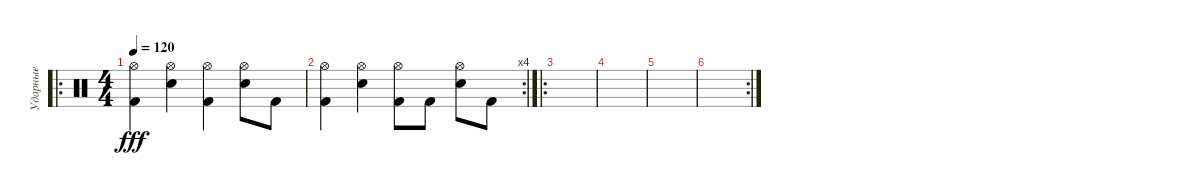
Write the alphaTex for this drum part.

\track ("Ударные" "Ударные") {instrument percussion}
\staff {score}
\articulation defaults
\ro
\ts (4 4)
\tempo 120
\clef neutral
\ks c
("Hi-Hat (open)" "Kick (hit) 2").4{dy fff} ("Hi-Hat (open)" "Electric Snare (hit)").4 ("Hi-Hat (open)" "Kick (hit) 2").4 ("Hi-Hat (open)" "Electric Snare (hit)").8 "Kick (hit) 2".8 |
\rc 4
("Hi-Hat (open)" "Kick (hit) 2").4 ("Hi-Hat (open)" "Electric Snare (hit)").4 ("Hi-Hat (open)" "Kick (hit) 2").8 "Kick (hit) 2".8 ("Hi-Hat (open)" "Electric Snare (hit)").8 "Kick (hit) 2".8 |
\ro
|
|
|
\rc 2
